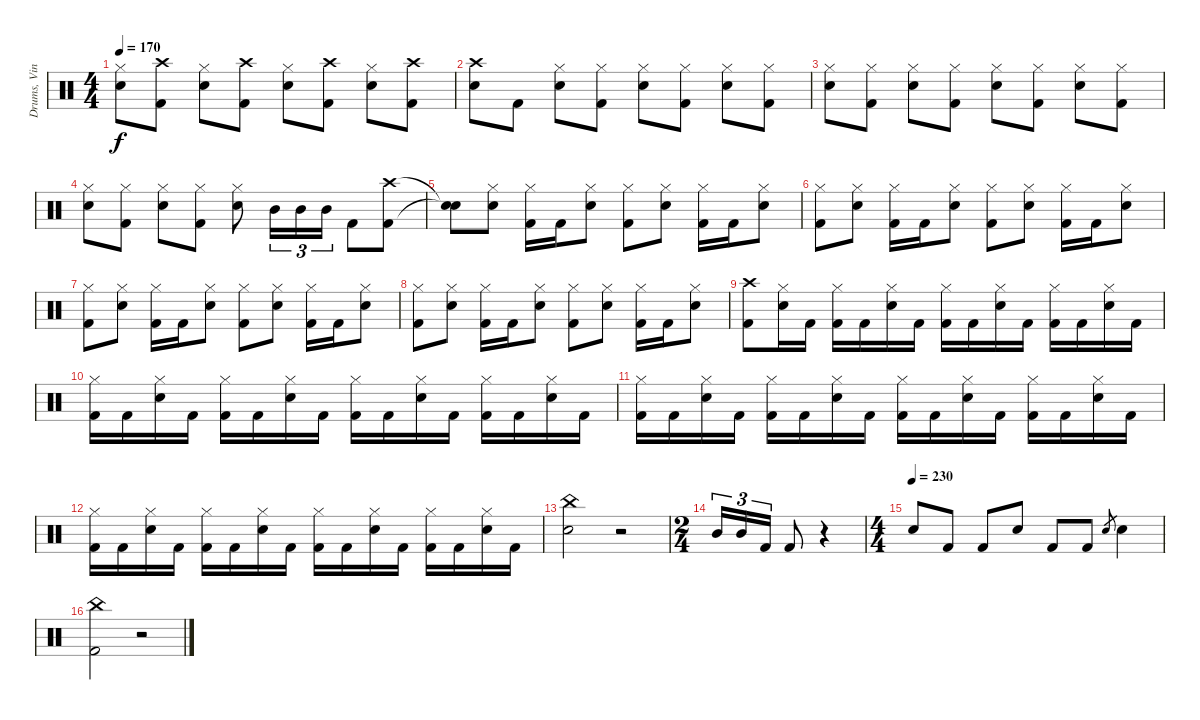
\track ("Drums, Vinnie" "Drums, Vin") {instrument percussion}
\staff {score}
\articulation defaults
\ts (4 4)
\tempo 170
\clef neutral
\ks c
("Hi-Hat (closed)" "Electric Snare (hit)").8{dy f} ("Crash high (hit)" "Kick (hit) 2").8 ("Hi-Hat (closed)" "Electric Snare (hit)").8 ("Crash high (hit)" "Kick (hit) 2").8 ("Hi-Hat (closed)" "Electric Snare (hit)").8 ("Crash high (hit)" "Kick (hit) 2").8 ("Hi-Hat (closed)" "Electric Snare (hit)").8 ("Crash high (hit)" "Kick (hit) 2").8 |
("Crash high (hit)" "Electric Snare (hit)").8 "Kick (hit) 2".8 ("Hi-Hat (closed)" "Electric Snare (hit)").8 ("Hi-Hat (closed)" "Kick (hit) 2").8 ("Hi-Hat (closed)" "Electric Snare (hit)").8 ("Hi-Hat (closed)" "Kick (hit) 2").8 ("Hi-Hat (closed)" "Electric Snare (hit)").8 ("Hi-Hat (closed)" "Kick (hit) 2").8 |
("Hi-Hat (closed)" "Electric Snare (hit)").8 ("Hi-Hat (closed)" "Kick (hit) 2").8 ("Hi-Hat (closed)" "Electric Snare (hit)").8 ("Hi-Hat (closed)" "Kick (hit) 2").8 ("Hi-Hat (closed)" "Electric Snare (hit)").8 ("Hi-Hat (closed)" "Kick (hit) 2").8 ("Hi-Hat (closed)" "Electric Snare (hit)").8 ("Hi-Hat (closed)" "Kick (hit) 2").8 |
("Hi-Hat (closed)" "Electric Snare (hit)").8 ("Hi-Hat (closed)" "Kick (hit) 2").8 ("Hi-Hat (closed)" "Electric Snare (hit)").8 ("Hi-Hat (closed)" "Kick (hit) 2").8 ("Hi-Hat (closed)" "Electric Snare (hit)").8 "Mid Tom (hit)".16{tu (3 2)} "Mid Tom (hit)".16{tu (3 2)} "Mid Tom (hit)".16{tu (3 2)} "Kick (hit) 2".8 ("Crash high (hit)" "Kick (hit) 2").8 |
("Snare (hit)"{t} "Snare (hit)"{t}).8 ("Hi-Hat (closed)" "Electric Snare (hit)").8 ("Hi-Hat (closed)" "Kick (hit) 2").16 "Kick (hit) 2".16 ("Hi-Hat (closed)" "Electric Snare (hit)").8 ("Hi-Hat (closed)" "Kick (hit) 2").8 ("Hi-Hat (closed)" "Electric Snare (hit)").8 ("Hi-Hat (closed)" "Kick (hit) 2").16 "Kick (hit) 2".16 ("Hi-Hat (closed)" "Electric Snare (hit)").8 |
("Hi-Hat (closed)" "Kick (hit) 2").8 ("Hi-Hat (closed)" "Electric Snare (hit)").8 ("Hi-Hat (closed)" "Kick (hit) 2").16 "Kick (hit) 2".16 ("Hi-Hat (closed)" "Electric Snare (hit)").8 ("Hi-Hat (closed)" "Kick (hit) 2").8 ("Hi-Hat (closed)" "Electric Snare (hit)").8 ("Hi-Hat (closed)" "Kick (hit) 2").16 "Kick (hit) 2".16 ("Hi-Hat (closed)" "Electric Snare (hit)").8 |
("Hi-Hat (closed)" "Kick (hit) 2").8 ("Hi-Hat (closed)" "Electric Snare (hit)").8 ("Hi-Hat (closed)" "Kick (hit) 2").16 "Kick (hit) 2".16 ("Hi-Hat (closed)" "Electric Snare (hit)").8 ("Hi-Hat (closed)" "Kick (hit) 2").8 ("Hi-Hat (closed)" "Electric Snare (hit)").8 ("Hi-Hat (closed)" "Kick (hit) 2").16 "Kick (hit) 2".16 ("Hi-Hat (closed)" "Electric Snare (hit)").8 |
("Hi-Hat (closed)" "Kick (hit) 2").8 ("Hi-Hat (closed)" "Electric Snare (hit)").8 ("Hi-Hat (closed)" "Kick (hit) 2").16 "Kick (hit) 2".16 ("Hi-Hat (closed)" "Electric Snare (hit)").8 ("Hi-Hat (closed)" "Kick (hit) 2").8 ("Hi-Hat (closed)" "Electric Snare (hit)").8 ("Hi-Hat (closed)" "Kick (hit) 2").16 "Kick (hit) 2".16 ("Hi-Hat (closed)" "Electric Snare (hit)").8 |
("Crash high (hit)" "Kick (hit) 2").8 ("Hi-Hat (closed)" "Electric Snare (hit)").16 "Kick (hit) 2".16 ("Hi-Hat (closed)" "Kick (hit) 2").16 "Kick (hit) 2".16 ("Hi-Hat (closed)" "Electric Snare (hit)").16 "Kick (hit) 2".16 ("Hi-Hat (closed)" "Kick (hit) 2").16 "Kick (hit) 2".16 ("Hi-Hat (closed)" "Electric Snare (hit)").16 "Kick (hit) 2".16 ("Hi-Hat (closed)" "Kick (hit) 2").16 "Kick (hit) 2".16 ("Hi-Hat (closed)" "Electric Snare (hit)").16 "Kick (hit) 2".16 |
("Hi-Hat (closed)" "Kick (hit) 2").16 "Kick (hit) 2".16 ("Hi-Hat (closed)" "Electric Snare (hit)").16 "Kick (hit) 2".16 ("Hi-Hat (closed)" "Kick (hit) 2").16 "Kick (hit) 2".16 ("Hi-Hat (closed)" "Electric Snare (hit)").16 "Kick (hit) 2".16 ("Hi-Hat (closed)" "Kick (hit) 2").16 "Kick (hit) 2".16 ("Hi-Hat (closed)" "Electric Snare (hit)").16 "Kick (hit) 2".16 ("Hi-Hat (closed)" "Kick (hit) 2").16 "Kick (hit) 2".16 ("Hi-Hat (closed)" "Electric Snare (hit)").16 "Kick (hit) 2".16 |
("Hi-Hat (closed)" "Kick (hit) 2").16 "Kick (hit) 2".16 ("Hi-Hat (closed)" "Electric Snare (hit)").16 "Kick (hit) 2".16 ("Hi-Hat (closed)" "Kick (hit) 2").16 "Kick (hit) 2".16 ("Hi-Hat (closed)" "Electric Snare (hit)").16 "Kick (hit) 2".16 ("Hi-Hat (closed)" "Kick (hit) 2").16 "Kick (hit) 2".16 ("Hi-Hat (closed)" "Electric Snare (hit)").16 "Kick (hit) 2".16 ("Hi-Hat (closed)" "Kick (hit) 2").16 "Kick (hit) 2".16 ("Hi-Hat (closed)" "Electric Snare (hit)").16 "Kick (hit) 2".16 |
("Hi-Hat (closed)" "Kick (hit) 2").16 "Kick (hit) 2".16 ("Hi-Hat (closed)" "Electric Snare (hit)").16 "Kick (hit) 2".16 ("Hi-Hat (closed)" "Kick (hit) 2").16 "Kick (hit) 2".16 ("Hi-Hat (closed)" "Electric Snare (hit)").16 "Kick (hit) 2".16 ("Hi-Hat (closed)" "Kick (hit) 2").16 "Kick (hit) 2".16 ("Hi-Hat (closed)" "Electric Snare (hit)").16 "Kick (hit) 2".16 ("Hi-Hat (closed)" "Kick (hit) 2").16 "Kick (hit) 2".16 ("Hi-Hat (closed)" "Electric Snare (hit)").16 "Kick (hit) 2".16 |
("China (hit)" "Electric Snare (hit)").2 r.2 |
\ts (2 4)
"Mid Tom (hit)".16{tu (3 2)} "Mid Tom (hit)".16{tu (3 2)} "Kick (hit) 2".16{tu (3 2)} "Kick (hit) 2".8 r.4 |
\ts (4 4)
\tempo (230)
"Electric Snare (hit)".8 "Kick (hit) 2".8 "Kick (hit) 2".8 "Electric Snare (hit)".8 "Kick (hit) 2".8 "Kick (hit) 2".8 "Electric Snare (hit)".8{gr} "Electric Snare (hit)".4 |
("China (hit)" "Kick (hit) 2").2 r.2
